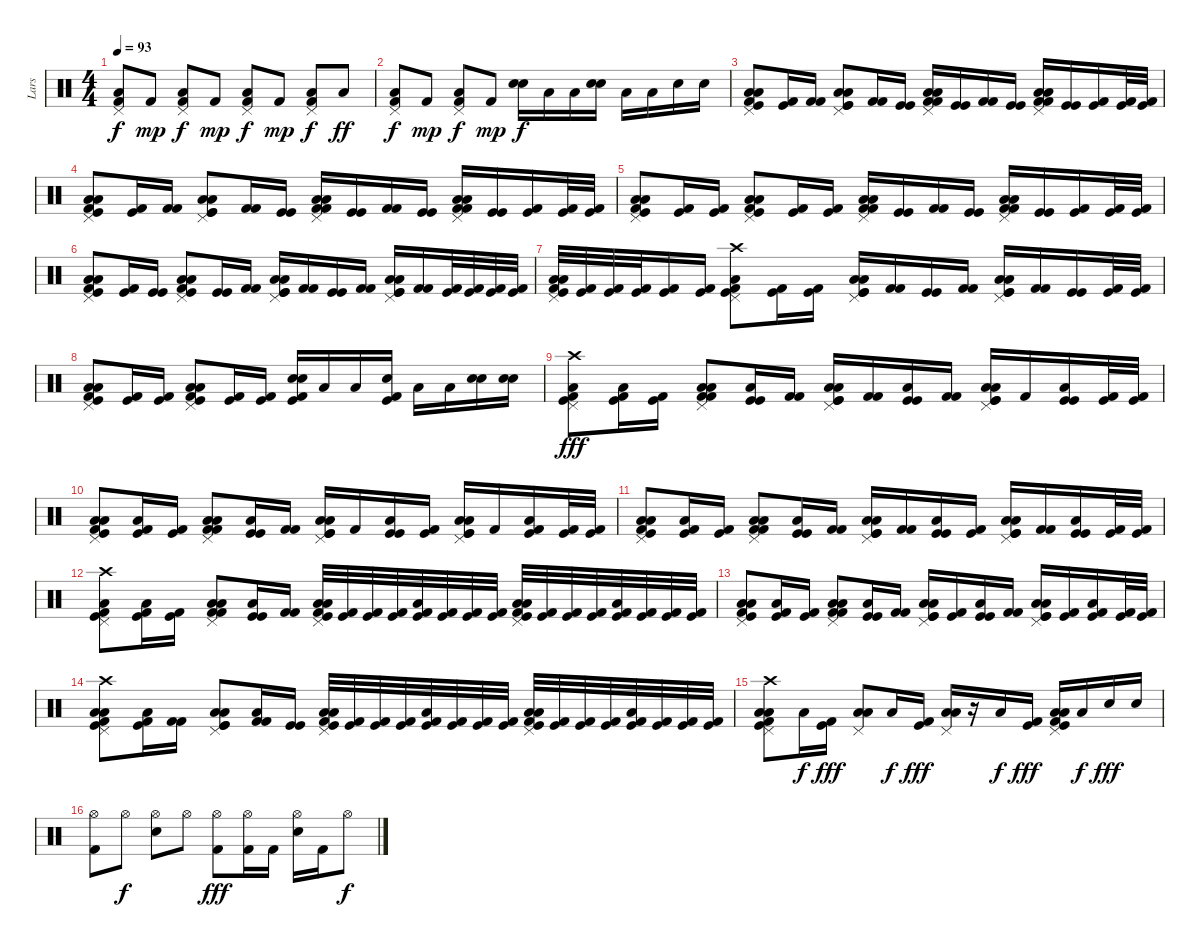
\track ("Lars" "Lars") {instrument percussion}
\staff {score}
\articulation defaults
\ts (4 4)
\tempo 93
\clef neutral
\ks c
("Pedal Hi-Hat (hit)" "Low Floor Tom (hit)" "Kick (hit) 2").8{dy f} "Kick (hit) 2".8{dy mp} ("Pedal Hi-Hat (hit)" "Low Floor Tom (hit)" "Kick (hit) 2").8{dy f} "Kick (hit) 2".8{dy mp} ("Pedal Hi-Hat (hit)" "Low Floor Tom (hit)" "Kick (hit) 2").8{dy f} "Kick (hit) 2".8{dy mp} ("Pedal Hi-Hat (hit)" "Low Floor Tom (hit)" "Kick (hit) 2").8{dy f} "Low Floor Tom (hit)".8{dy ff} |
("Pedal Hi-Hat (hit)" "Low Floor Tom (hit)" "Kick (hit) 2").8{dy f} "Kick (hit) 2".8{dy mp} ("Pedal Hi-Hat (hit)" "Low Floor Tom (hit)" "Kick (hit) 2").8{dy f} "Kick (hit) 2".8{dy mp} ("Electric Snare (hit)" "Snare (hit) 2").16{dy f} "Low Tom (hit)".16 "Low Floor Tom (hit)".16 ("Electric Snare (hit)" "Snare (hit) 2").16 "Low Tom (hit)".16 "Low Floor Tom (hit)".16 "Snare (hit) 2".16 "Snare (hit) 2".16 |
("Pedal Hi-Hat (hit)" "Low Floor Tom (hit)" "Low Tom (hit)" "Kick (hit)" "Kick (hit) 2").8 ("Kick (hit)" "Kick (hit) 2").16 ("Kick (hit) 2" "Kick (hit) 2").16 ("Pedal Hi-Hat (hit)" "Low Floor Tom (hit)" "Low Tom (hit)" "Kick (hit)" "Kick (hit)").8 ("Kick (hit) 2" "Kick (hit) 2").16 ("Kick (hit)" "Kick (hit)").16 ("Pedal Hi-Hat (hit)" "Low Floor Tom (hit)" "Low Tom (hit)" "Kick (hit) 2" "Kick (hit) 2").16 ("Kick (hit)" "Kick (hit)").16 ("Kick (hit) 2" "Kick (hit) 2").16 ("Kick (hit)" "Kick (hit)").16 ("Pedal Hi-Hat (hit)" "Low Floor Tom (hit)" "Low Tom (hit)" "Kick (hit) 2" "Kick (hit) 2").16 ("Kick (hit)" "Kick (hit)").16 ("Kick (hit)" "Kick (hit) 2").16 ("Kick (hit)" "Kick (hit) 2").32 ("Kick (hit)" "Kick (hit) 2").32 |
("Pedal Hi-Hat (hit)" "Low Floor Tom (hit)" "Low Tom (hit)" "Kick (hit)" "Kick (hit) 2").8 ("Kick (hit)" "Kick (hit) 2").16 ("Kick (hit) 2" "Kick (hit) 2").16 ("Pedal Hi-Hat (hit)" "Low Floor Tom (hit)" "Low Tom (hit)" "Kick (hit)" "Kick (hit)").8 ("Kick (hit) 2" "Kick (hit) 2").16 ("Kick (hit)" "Kick (hit)").16 ("Pedal Hi-Hat (hit)" "Low Floor Tom (hit)" "Low Tom (hit)" "Kick (hit) 2" "Kick (hit) 2").16 ("Kick (hit)" "Kick (hit)").16 ("Kick (hit) 2" "Kick (hit) 2").16 ("Kick (hit)" "Kick (hit)").16 ("Pedal Hi-Hat (hit)" "Low Floor Tom (hit)" "Low Tom (hit)" "Kick (hit) 2" "Kick (hit) 2").16 ("Kick (hit)" "Kick (hit)").16 ("Kick (hit)" "Kick (hit) 2").16 ("Kick (hit)" "Kick (hit) 2").32 ("Kick (hit)" "Kick (hit) 2").32 |
("Pedal Hi-Hat (hit)" "Low Floor Tom (hit)" "Low Tom (hit)" "Kick (hit)" "Kick (hit) 2").8 ("Kick (hit)" "Kick (hit) 2").16 ("Kick (hit)" "Kick (hit) 2").16 ("Pedal Hi-Hat (hit)" "Low Floor Tom (hit)" "Low Tom (hit)" "Kick (hit)" "Kick (hit) 2").8 ("Kick (hit)" "Kick (hit) 2").16 ("Kick (hit)" "Kick (hit) 2").16 ("Pedal Hi-Hat (hit)" "Low Floor Tom (hit)" "Low Tom (hit)" "Kick (hit) 2" "Kick (hit) 2").16 ("Kick (hit)" "Kick (hit)").16 ("Kick (hit) 2" "Kick (hit) 2").16 ("Kick (hit)" "Kick (hit)").16 ("Pedal Hi-Hat (hit)" "Low Floor Tom (hit)" "Low Tom (hit)" "Kick (hit) 2" "Kick (hit) 2").16 ("Kick (hit)" "Kick (hit)").16 ("Kick (hit)" "Kick (hit) 2").16 ("Kick (hit)" "Kick (hit) 2").32 ("Kick (hit)" "Kick (hit) 2").32 |
("Pedal Hi-Hat (hit)" "Low Floor Tom (hit)" "Low Tom (hit)" "Kick (hit)" "Kick (hit) 2").8 ("Kick (hit)" "Kick (hit) 2").16 ("Kick (hit)" "Kick (hit)").16 ("Pedal Hi-Hat (hit)" "Low Floor Tom (hit)" "Low Tom (hit)" "Kick (hit)" "Kick (hit) 2").8 ("Kick (hit)" "Kick (hit)").16 ("Kick (hit) 2" "Kick (hit) 2").16 ("Pedal Hi-Hat (hit)" "Low Floor Tom (hit)" "Low Tom (hit)" "Kick (hit)" "Kick (hit)").16 ("Kick (hit) 2" "Kick (hit) 2").16 ("Kick (hit)" "Kick (hit)").16 ("Kick (hit) 2" "Kick (hit) 2").16 ("Pedal Hi-Hat (hit)" "Low Floor Tom (hit)" "Low Tom (hit)" "Kick (hit)" "Kick (hit)").16 ("Kick (hit) 2" "Kick (hit) 2").16 ("Kick (hit)" "Kick (hit) 2").32 ("Kick (hit)" "Kick (hit) 2").32 ("Kick (hit)" "Kick (hit) 2").32 ("Kick (hit)" "Kick (hit) 2").32 |
("Pedal Hi-Hat (hit)" "Low Floor Tom (hit)" "Low Tom (hit)" "Kick (hit)" "Kick (hit) 2").32 ("Kick (hit)" "Kick (hit) 2").32 ("Kick (hit)" "Kick (hit) 2").32 ("Kick (hit)" "Kick (hit) 2").32 ("Kick (hit)" "Kick (hit) 2").16 ("Kick (hit)" "Kick (hit) 2").16 ("Crash high (hit)" "Pedal Hi-Hat (hit)" "Low Floor Tom (hit)" "Kick (hit)" "Kick (hit) 2").8 ("Kick (hit)" "Kick (hit) 2").16 ("Kick (hit)" "Kick (hit) 2").16 ("Pedal Hi-Hat (hit)" "Low Floor Tom (hit)" "Low Tom (hit)" "Kick (hit)" "Kick (hit)").16 ("Kick (hit) 2" "Kick (hit) 2").16 ("Kick (hit)" "Kick (hit)").16 ("Kick (hit) 2" "Kick (hit) 2").16 ("Pedal Hi-Hat (hit)" "Low Floor Tom (hit)" "Low Tom (hit)" "Kick (hit)" "Kick (hit)").16 ("Kick (hit) 2" "Kick (hit) 2").16 ("Kick (hit)" "Kick (hit)").16 ("Kick (hit)" "Kick (hit) 2").32 ("Kick (hit)" "Kick (hit) 2").32 |
("Pedal Hi-Hat (hit)" "Low Floor Tom (hit)" "Low Tom (hit)" "Kick (hit)" "Kick (hit) 2").8 ("Kick (hit)" "Kick (hit) 2").16 ("Kick (hit)" "Kick (hit) 2").16 ("Pedal Hi-Hat (hit)" "Low Floor Tom (hit)" "Low Tom (hit)" "Kick (hit)" "Kick (hit) 2").8 ("Kick (hit)" "Kick (hit) 2").16 ("Kick (hit)" "Kick (hit) 2").16 ("Snare (hit) 2" "Electric Snare (hit)" "Kick (hit)" "Kick (hit) 2").16 "Low Tom (hit)".16 "Low Floor Tom (hit)".16 ("Snare (hit) 2" "Kick (hit)" "Kick (hit) 2").16 "Low Tom (hit)".16 "Low Floor Tom (hit)".16 ("Snare (hit) 2" "Electric Snare (hit)").16 ("Snare (hit) 2" "Electric Snare (hit)").16 |
("Crash high (hit)" "Pedal Hi-Hat (hit)" "Low Floor Tom (hit)" "Kick (hit)" "Kick (hit) 2").8{dy fff} ("Low Floor Tom (hit)" "Kick (hit)" "Kick (hit) 2").16 ("Kick (hit)" "Kick (hit) 2").16 ("Pedal Hi-Hat (hit)" "Low Tom (hit)" "Low Floor Tom (hit)" "Kick (hit) 2" "Kick (hit) 2").8 ("Low Floor Tom (hit)" "Kick (hit)" "Kick (hit)").16 ("Kick (hit) 2" "Kick (hit) 2").16 ("Pedal Hi-Hat (hit)" "Low Tom (hit)" "Low Floor Tom (hit)" "Kick (hit)" "Kick (hit)").16 ("Kick (hit) 2" "Kick (hit) 2").16 ("Low Floor Tom (hit)" "Kick (hit)" "Kick (hit)").16 ("Kick (hit) 2" "Kick (hit) 2").16 ("Pedal Hi-Hat (hit)" "Low Tom (hit)" "Low Floor Tom (hit)" "Kick (hit)" "Kick (hit)").16 "Kick (hit) 2".16 ("Low Floor Tom (hit)" "Kick (hit)" "Kick (hit)").16 ("Kick (hit)" "Kick (hit) 2").32 ("Kick (hit)" "Kick (hit) 2").32 |
("Pedal Hi-Hat (hit)" "Low Tom (hit)" "Low Floor Tom (hit)" "Kick (hit)" "Kick (hit) 2").8 ("Low Floor Tom (hit)" "Kick (hit)" "Kick (hit) 2").16 ("Kick (hit)" "Kick (hit) 2").16 ("Pedal Hi-Hat (hit)" "Low Tom (hit)" "Low Floor Tom (hit)" "Kick (hit) 2" "Kick (hit) 2").8 ("Low Floor Tom (hit)" "Kick (hit)" "Kick (hit)").16 ("Kick (hit) 2" "Kick (hit) 2").16 ("Pedal Hi-Hat (hit)" "Low Tom (hit)" "Low Floor Tom (hit)" "Kick (hit)" "Kick (hit)").16 "Kick (hit) 2".16 ("Low Floor Tom (hit)" "Kick (hit)" "Kick (hit)").16 ("Kick (hit)" "Kick (hit) 2").16 ("Pedal Hi-Hat (hit)" "Low Tom (hit)" "Low Floor Tom (hit)" "Kick (hit)" "Kick (hit)").16 "Kick (hit) 2".16 ("Low Floor Tom (hit)" "Kick (hit)" "Kick (hit) 2").16 ("Kick (hit)" "Kick (hit) 2").32 ("Kick (hit)" "Kick (hit) 2").32 |
("Pedal Hi-Hat (hit)" "Low Tom (hit)" "Low Floor Tom (hit)" "Kick (hit)" "Kick (hit) 2").8 ("Low Floor Tom (hit)" "Kick (hit)" "Kick (hit) 2").16 ("Kick (hit)" "Kick (hit) 2").16 ("Pedal Hi-Hat (hit)" "Low Tom (hit)" "Low Floor Tom (hit)" "Kick (hit) 2" "Kick (hit) 2").8 ("Low Floor Tom (hit)" "Kick (hit)" "Kick (hit)").16 ("Kick (hit) 2" "Kick (hit) 2").16 ("Pedal Hi-Hat (hit)" "Low Tom (hit)" "Low Floor Tom (hit)" "Kick (hit)" "Kick (hit)").16 ("Kick (hit) 2" "Kick (hit) 2").16 ("Low Floor Tom (hit)" "Kick (hit)" "Kick (hit)").16 ("Kick (hit)" "Kick (hit) 2").16 ("Pedal Hi-Hat (hit)" "Low Tom (hit)" "Low Floor Tom (hit)" "Kick (hit)" "Kick (hit)").16 ("Kick (hit) 2" "Kick (hit) 2").16 ("Low Floor Tom (hit)" "Kick (hit)" "Kick (hit)").16 ("Kick (hit)" "Kick (hit) 2").32 ("Kick (hit)" "Kick (hit) 2").32 |
("Crash high (hit)" "Pedal Hi-Hat (hit)" "Low Floor Tom (hit)" "Kick (hit)" "Kick (hit) 2").8 ("Low Floor Tom (hit)" "Kick (hit)" "Kick (hit) 2").16 ("Kick (hit)" "Kick (hit) 2").16 ("Pedal Hi-Hat (hit)" "Low Tom (hit)" "Low Floor Tom (hit)" "Kick (hit) 2" "Kick (hit) 2").8 ("Low Floor Tom (hit)" "Kick (hit)" "Kick (hit)").16 ("Kick (hit) 2" "Kick (hit) 2").16 ("Pedal Hi-Hat (hit)" "Low Tom (hit)" "Low Floor Tom (hit)" "Kick (hit)" "Kick (hit) 2").32 ("Kick (hit)" "Kick (hit) 2").32 ("Kick (hit)" "Kick (hit) 2").32 ("Kick (hit)" "Kick (hit) 2").32 ("Low Floor Tom (hit)" "Kick (hit)" "Kick (hit) 2").32 ("Kick (hit)" "Kick (hit) 2").32 ("Kick (hit)" "Kick (hit) 2").32 ("Kick (hit)" "Kick (hit) 2").32 ("Pedal Hi-Hat (hit)" "Low Tom (hit)" "Low Floor Tom (hit)" "Kick (hit)" "Kick (hit) 2").32 ("Kick (hit)" "Kick (hit) 2").32 ("Kick (hit)" "Kick (hit) 2").32 ("Kick (hit)" "Kick (hit) 2").32 ("Low Floor Tom (hit)" "Kick (hit)" "Kick (hit) 2").32 ("Kick (hit)" "Kick (hit) 2").32 ("Kick (hit)" "Kick (hit) 2").32 ("Kick (hit)" "Kick (hit) 2").32 |
("Pedal Hi-Hat (hit)" "Low Tom (hit)" "Low Floor Tom (hit)" "Kick (hit)" "Kick (hit) 2").8 ("Low Floor Tom (hit)" "Kick (hit)" "Kick (hit) 2").16 ("Kick (hit)" "Kick (hit) 2").16 ("Pedal Hi-Hat (hit)" "Low Tom (hit)" "Low Floor Tom (hit)" "Kick (hit) 2" "Kick (hit) 2").8 ("Low Floor Tom (hit)" "Kick (hit)" "Kick (hit)").16 ("Kick (hit) 2" "Kick (hit) 2").16 ("Pedal Hi-Hat (hit)" "Low Tom (hit)" "Low Floor Tom (hit)" "Kick (hit)" "Kick (hit)").16 ("Kick (hit)" "Kick (hit) 2").16 ("Low Floor Tom (hit)" "Kick (hit)" "Kick (hit)").16 ("Kick (hit) 2" "Kick (hit) 2").16 ("Pedal Hi-Hat (hit)" "Low Tom (hit)" "Low Floor Tom (hit)" "Kick (hit)" "Kick (hit)").16 ("Kick (hit)" "Kick (hit) 2").16 ("Low Floor Tom (hit)" "Kick (hit)" "Kick (hit) 2").16 ("Kick (hit)" "Kick (hit) 2").32 ("Kick (hit)" "Kick (hit) 2").32 |
("Crash high (hit)" "Pedal Hi-Hat (hit)" "Low Tom (hit)" "Low Floor Tom (hit)" "Kick (hit)" "Kick (hit) 2").8 ("Low Floor Tom (hit)" "Kick (hit)" "Kick (hit) 2").16 ("Kick (hit) 2" "Kick (hit) 2").16 ("Pedal Hi-Hat (hit)" "Low Tom (hit)" "Low Floor Tom (hit)" "Kick (hit)" "Kick (hit)").8 ("Low Floor Tom (hit)" "Kick (hit) 2" "Kick (hit) 2").16 ("Kick (hit)" "Kick (hit)").16 ("Pedal Hi-Hat (hit)" "Low Tom (hit)" "Low Floor Tom (hit)" "Kick (hit)" "Kick (hit) 2").32 ("Kick (hit)" "Kick (hit) 2").32 ("Kick (hit)" "Kick (hit) 2").32 ("Kick (hit)" "Kick (hit) 2").32 ("Low Floor Tom (hit)" "Kick (hit)" "Kick (hit) 2").32 ("Kick (hit)" "Kick (hit) 2").32 ("Kick (hit)" "Kick (hit) 2").32 ("Kick (hit)" "Kick (hit) 2").32 ("Pedal Hi-Hat (hit)" "Low Tom (hit)" "Low Floor Tom (hit)" "Kick (hit)" "Kick (hit) 2").32 ("Kick (hit)" "Kick (hit) 2").32 ("Kick (hit)" "Kick (hit) 2").32 ("Kick (hit)" "Kick (hit) 2").32 ("Low Floor Tom (hit)" "Kick (hit)" "Kick (hit) 2").32 ("Kick (hit)" "Kick (hit) 2").32 ("Kick (hit)" "Kick (hit) 2").32 ("Kick (hit)" "Kick (hit) 2").32 |
("Crash high (hit)" "Pedal Hi-Hat (hit)" "Low Tom (hit)" "Low Floor Tom (hit)" "Kick (hit)" "Kick (hit) 2").8 "Low Floor Tom (hit)".16{dy f} ("Kick (hit)" "Kick (hit) 2").16{dy fff} ("Pedal Hi-Hat (hit)" "Low Tom (hit)" "Low Floor Tom (hit)").8 "Low Floor Tom (hit)".16{dy f} ("Kick (hit)" "Kick (hit) 2").16{dy fff} ("Pedal Hi-Hat (hit)" "Low Tom (hit)" "Low Floor Tom (hit)").16 r.16 "Low Floor Tom (hit)".16{dy f} ("Kick (hit)" "Kick (hit) 2").16{dy fff} ("Pedal Hi-Hat (hit)" "Low Tom (hit)" "Low Floor Tom (hit)" "Kick (hit)" "Kick (hit) 2").16 "Low Floor Tom (hit)".16{dy f} "Electric Snare (hit)".16{dy fff} "Electric Snare (hit)".16 |
("Hi-Hat (open)" "Kick (hit) 2").8 "Hi-Hat (open)".8{dy f} ("Hi-Hat (open)" "Snare (hit) 2").8 "Hi-Hat (open)".8 ("Hi-Hat (open)" "Kick (hit) 2").8{dy fff} ("Hi-Hat (open)" "Kick (hit) 2").16 "Kick (hit) 2".16 ("Hi-Hat (open)" "Snare (hit) 2").16 "Kick (hit) 2".16 "Hi-Hat (open)".8{dy f}
